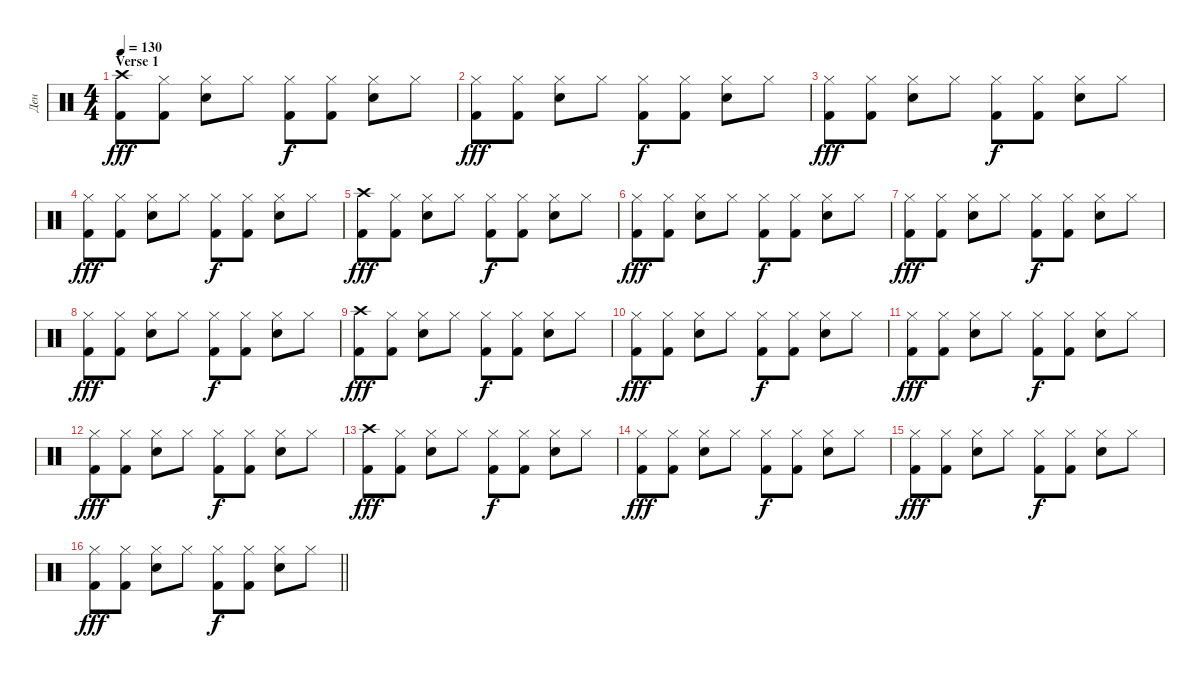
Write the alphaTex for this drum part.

\track ("Ден" "Ден") {instrument percussion}
\staff {score}
\articulation defaults
\ts (4 4)
\section ("" "Verse 1")
\tempo 130
\clef neutral
\ks c
("Crash high (hit)" "Kick (hit) 2").8{dy fff} ("Hi-Hat (closed)" "Kick (hit) 2").8 ("Hi-Hat (closed)" "Snare (hit) 2").8 "Hi-Hat (closed)".8 ("Hi-Hat (closed)" "Kick (hit) 2").8{dy f} ("Hi-Hat (closed)" "Kick (hit) 2").8 ("Hi-Hat (closed)" "Snare (hit) 2").8 "Hi-Hat (closed)".8 |
("Hi-Hat (closed)" "Kick (hit) 2").8{dy fff} ("Hi-Hat (closed)" "Kick (hit) 2").8 ("Hi-Hat (closed)" "Snare (hit) 2").8 "Hi-Hat (closed)".8 ("Hi-Hat (closed)" "Kick (hit) 2").8{dy f} ("Hi-Hat (closed)" "Kick (hit) 2").8 ("Hi-Hat (closed)" "Snare (hit) 2").8 "Hi-Hat (closed)".8 |
("Hi-Hat (closed)" "Kick (hit) 2").8{dy fff} ("Hi-Hat (closed)" "Kick (hit) 2").8 ("Hi-Hat (closed)" "Snare (hit) 2").8 "Hi-Hat (closed)".8 ("Hi-Hat (closed)" "Kick (hit) 2").8{dy f} ("Hi-Hat (closed)" "Kick (hit) 2").8 ("Hi-Hat (closed)" "Snare (hit) 2").8 "Hi-Hat (closed)".8 |
("Hi-Hat (closed)" "Kick (hit) 2").8{dy fff} ("Hi-Hat (closed)" "Kick (hit) 2").8 ("Hi-Hat (closed)" "Snare (hit) 2").8 "Hi-Hat (closed)".8 ("Hi-Hat (closed)" "Kick (hit) 2").8{dy f} ("Hi-Hat (closed)" "Kick (hit) 2").8 ("Hi-Hat (closed)" "Snare (hit) 2").8 "Hi-Hat (closed)".8 |
("Crash high (hit)" "Kick (hit) 2").8{dy fff} ("Hi-Hat (closed)" "Kick (hit) 2").8 ("Hi-Hat (closed)" "Snare (hit) 2").8 "Hi-Hat (closed)".8 ("Hi-Hat (closed)" "Kick (hit) 2").8{dy f} ("Hi-Hat (closed)" "Kick (hit) 2").8 ("Hi-Hat (closed)" "Snare (hit) 2").8 "Hi-Hat (closed)".8 |
("Hi-Hat (closed)" "Kick (hit) 2").8{dy fff} ("Hi-Hat (closed)" "Kick (hit) 2").8 ("Hi-Hat (closed)" "Snare (hit) 2").8 "Hi-Hat (closed)".8 ("Hi-Hat (closed)" "Kick (hit) 2").8{dy f} ("Hi-Hat (closed)" "Kick (hit) 2").8 ("Hi-Hat (closed)" "Snare (hit) 2").8 "Hi-Hat (closed)".8 |
("Hi-Hat (closed)" "Kick (hit) 2").8{dy fff} ("Hi-Hat (closed)" "Kick (hit) 2").8 ("Hi-Hat (closed)" "Snare (hit) 2").8 "Hi-Hat (closed)".8 ("Hi-Hat (closed)" "Kick (hit) 2").8{dy f} ("Hi-Hat (closed)" "Kick (hit) 2").8 ("Hi-Hat (closed)" "Snare (hit) 2").8 "Hi-Hat (closed)".8 |
("Hi-Hat (closed)" "Kick (hit) 2").8{dy fff} ("Hi-Hat (closed)" "Kick (hit) 2").8 ("Hi-Hat (closed)" "Snare (hit) 2").8 "Hi-Hat (closed)".8 ("Hi-Hat (closed)" "Kick (hit) 2").8{dy f} ("Hi-Hat (closed)" "Kick (hit) 2").8 ("Hi-Hat (closed)" "Snare (hit) 2").8 "Hi-Hat (closed)".8 |
("Crash high (hit)" "Kick (hit) 2").8{dy fff} ("Hi-Hat (closed)" "Kick (hit) 2").8 ("Hi-Hat (closed)" "Snare (hit) 2").8 "Hi-Hat (closed)".8 ("Hi-Hat (closed)" "Kick (hit) 2").8{dy f} ("Hi-Hat (closed)" "Kick (hit) 2").8 ("Hi-Hat (closed)" "Snare (hit) 2").8 "Hi-Hat (closed)".8 |
("Hi-Hat (closed)" "Kick (hit) 2").8{dy fff} ("Hi-Hat (closed)" "Kick (hit) 2").8 ("Hi-Hat (closed)" "Snare (hit) 2").8 "Hi-Hat (closed)".8 ("Hi-Hat (closed)" "Kick (hit) 2").8{dy f} ("Hi-Hat (closed)" "Kick (hit) 2").8 ("Hi-Hat (closed)" "Snare (hit) 2").8 "Hi-Hat (closed)".8 |
("Hi-Hat (closed)" "Kick (hit) 2").8{dy fff} ("Hi-Hat (closed)" "Kick (hit) 2").8 ("Hi-Hat (closed)" "Snare (hit) 2").8 "Hi-Hat (closed)".8 ("Hi-Hat (closed)" "Kick (hit) 2").8{dy f} ("Hi-Hat (closed)" "Kick (hit) 2").8 ("Hi-Hat (closed)" "Snare (hit) 2").8 "Hi-Hat (closed)".8 |
("Hi-Hat (closed)" "Kick (hit) 2").8{dy fff} ("Hi-Hat (closed)" "Kick (hit) 2").8 ("Hi-Hat (closed)" "Snare (hit) 2").8 "Hi-Hat (closed)".8 ("Hi-Hat (closed)" "Kick (hit) 2").8{dy f} ("Hi-Hat (closed)" "Kick (hit) 2").8 ("Hi-Hat (closed)" "Snare (hit) 2").8 "Hi-Hat (closed)".8 |
("Crash high (hit)" "Kick (hit) 2").8{dy fff} ("Hi-Hat (closed)" "Kick (hit) 2").8 ("Hi-Hat (closed)" "Snare (hit) 2").8 "Hi-Hat (closed)".8 ("Hi-Hat (closed)" "Kick (hit) 2").8{dy f} ("Hi-Hat (closed)" "Kick (hit) 2").8 ("Hi-Hat (closed)" "Snare (hit) 2").8 "Hi-Hat (closed)".8 |
("Hi-Hat (closed)" "Kick (hit) 2").8{dy fff} ("Hi-Hat (closed)" "Kick (hit) 2").8 ("Hi-Hat (closed)" "Snare (hit) 2").8 "Hi-Hat (closed)".8 ("Hi-Hat (closed)" "Kick (hit) 2").8{dy f} ("Hi-Hat (closed)" "Kick (hit) 2").8 ("Hi-Hat (closed)" "Snare (hit) 2").8 "Hi-Hat (closed)".8 |
("Hi-Hat (closed)" "Kick (hit) 2").8{dy fff} ("Hi-Hat (closed)" "Kick (hit) 2").8 ("Hi-Hat (closed)" "Snare (hit) 2").8 "Hi-Hat (closed)".8 ("Hi-Hat (closed)" "Kick (hit) 2").8{dy f} ("Hi-Hat (closed)" "Kick (hit) 2").8 ("Hi-Hat (closed)" "Snare (hit) 2").8 "Hi-Hat (closed)".8 |
\barLineRight lightlight
("Hi-Hat (closed)" "Kick (hit) 2").8{dy fff} ("Hi-Hat (closed)" "Kick (hit) 2").8 ("Hi-Hat (closed)" "Snare (hit) 2").8 "Hi-Hat (closed)".8 ("Hi-Hat (closed)" "Kick (hit) 2").8{dy f} ("Hi-Hat (closed)" "Kick (hit) 2").8 ("Hi-Hat (closed)" "Snare (hit) 2").8 "Hi-Hat (closed)".8
